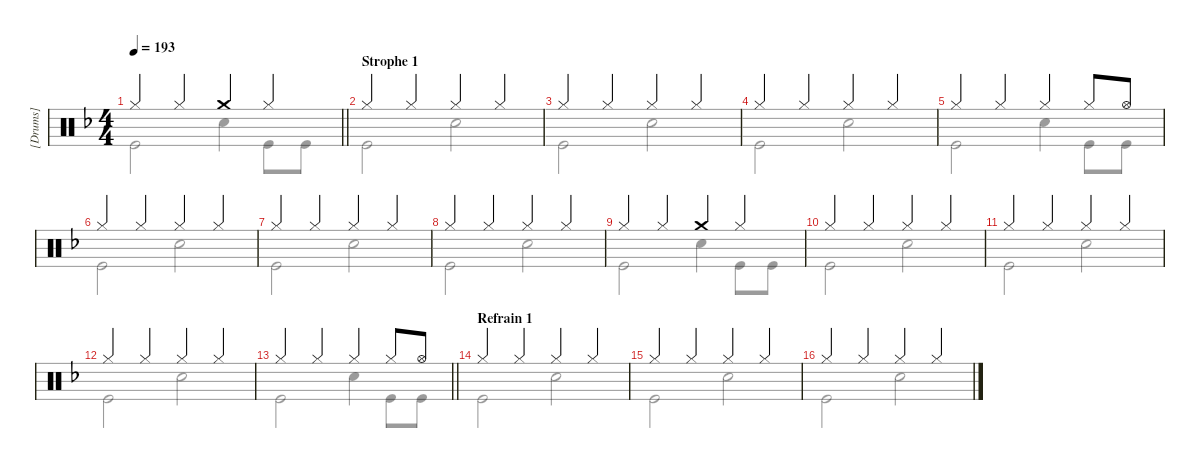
\hideDynamics
\bracketExtendMode groupsimilarinstruments
\firstSystemTrackNameMode fullname
\otherSystemsTrackNameMode fullname
\otherSystemsTrackNameOrientation horizontal
\track ("[Drums]" "Drums") {instrument percussion}
\staff {score}
\articulation defaults
\voice
\ts (4 4)
\tempo 193
\clef neutral
\barLineRight lightlight
\ks f "Hi-Hat (closed)".4{dy ff} "Hi-Hat (closed)".4 "Crash medium (hit)".4 "Hi-Hat (closed)".4
|
\section ("" "Strophe 1")
"Hi-Hat (closed)".4 "Hi-Hat (closed)".4 "Hi-Hat (closed)".4 "Hi-Hat (closed)".4 |
"Hi-Hat (closed)".4 "Hi-Hat (closed)".4 "Hi-Hat (closed)".4 "Hi-Hat (closed)".4 |
"Hi-Hat (closed)".4 "Hi-Hat (closed)".4 "Hi-Hat (closed)".4 "Hi-Hat (closed)".4 |
"Hi-Hat (closed)".4 "Hi-Hat (closed)".4 "Hi-Hat (closed)".4 "Hi-Hat (closed)".8 "Hi-Hat (open)".8 |
"Hi-Hat (closed)".4 "Hi-Hat (closed)".4 "Hi-Hat (closed)".4 "Hi-Hat (closed)".4 |
"Hi-Hat (closed)".4 "Hi-Hat (closed)".4 "Hi-Hat (closed)".4 "Hi-Hat (closed)".4 |
"Hi-Hat (closed)".4 "Hi-Hat (closed)".4 "Hi-Hat (closed)".4 "Hi-Hat (closed)".4 |
"Hi-Hat (closed)".4 "Hi-Hat (closed)".4 "Crash medium (hit)".4 "Hi-Hat (closed)".4 |
"Hi-Hat (closed)".4 "Hi-Hat (closed)".4 "Hi-Hat (closed)".4 "Hi-Hat (closed)".4 |
"Hi-Hat (closed)".4 "Hi-Hat (closed)".4 "Hi-Hat (closed)".4 "Hi-Hat (closed)".4 |
"Hi-Hat (closed)".4 "Hi-Hat (closed)".4 "Hi-Hat (closed)".4 "Hi-Hat (closed)".4 |
\barLineRight lightlight "Hi-Hat (closed)".4 "Hi-Hat (closed)".4 "Hi-Hat (closed)".4 "Hi-Hat (closed)".8 "Hi-Hat (open)".8
|
\section ("" "Refrain 1")
"Hi-Hat (closed)".4 "Hi-Hat (closed)".4 "Hi-Hat (closed)".4 "Hi-Hat (closed)".4 |
"Hi-Hat (closed)".4 "Hi-Hat (closed)".4 "Hi-Hat (closed)".4 "Hi-Hat (closed)".4 |
"Hi-Hat (closed)".4 "Hi-Hat (closed)".4 "Hi-Hat (closed)".4 "Hi-Hat (closed)".4
\voice
\clef neutral
\ottava regular
\simile none
\barLineRight lightlight
\ks f "Kick (hit)".2{dy f} "Snare (hit) 2".4 "Kick (hit)".8 "Kick (hit)".8
|
"Kick (hit)".2 "Snare (hit) 2".2 |
"Kick (hit)".2 "Snare (hit) 2".2 |
"Kick (hit)".2 "Snare (hit) 2".2 |
"Kick (hit)".2 "Snare (hit) 2".4 "Kick (hit)".8 "Kick (hit)".8 |
"Kick (hit)".2 "Snare (hit) 2".2 |
"Kick (hit)".2 "Snare (hit) 2".2 |
"Kick (hit)".2 "Snare (hit) 2".2 |
"Kick (hit)".2 "Snare (hit) 2".4 "Kick (hit)".8 "Kick (hit)".8 |
"Kick (hit)".2 "Snare (hit) 2".2 |
"Kick (hit)".2 "Snare (hit) 2".2 |
"Kick (hit)".2 "Snare (hit) 2".2 |
\barLineRight lightlight "Kick (hit)".2 "Snare (hit) 2".4 "Kick (hit)".8 "Kick (hit)".8
|
"Kick (hit)".2 "Snare (hit) 2".2 |
"Kick (hit)".2 "Snare (hit) 2".2 |
"Kick (hit)".2 "Snare (hit) 2".2
